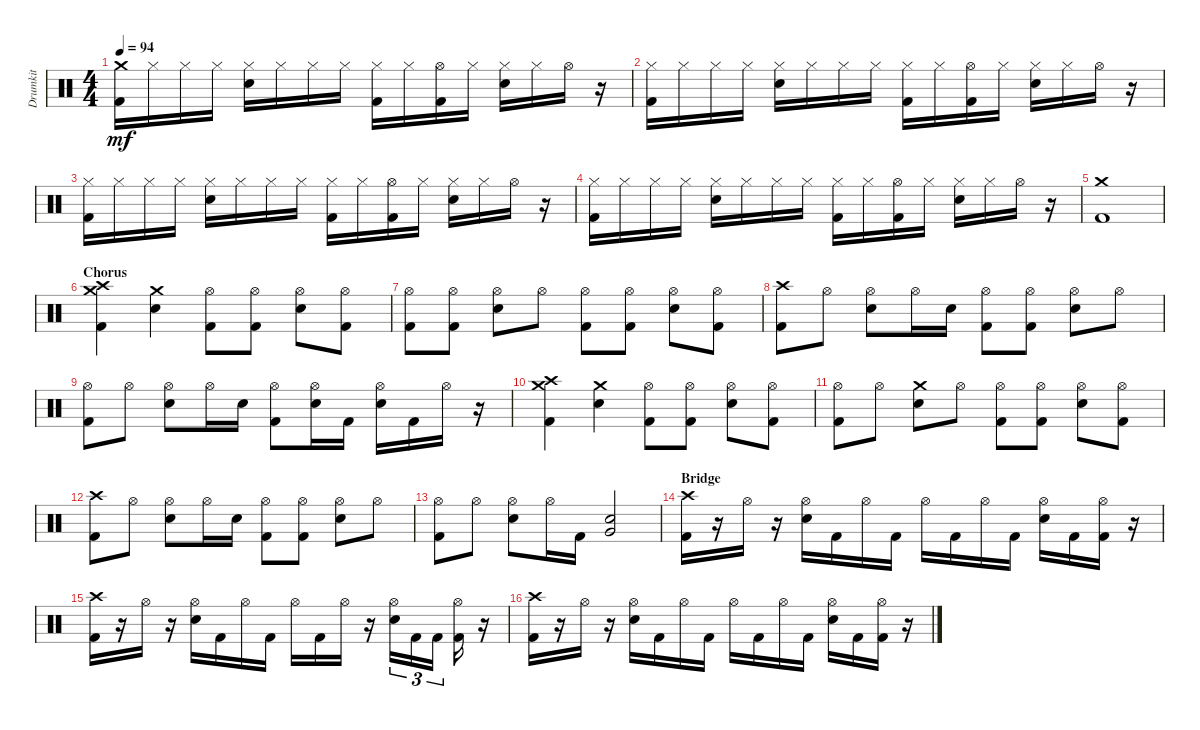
\track ("Drumkit" "Drumkit") {instrument percussion}
\staff {score}
\articulation defaults
\ts (4 4)
\tempo 94
\clef neutral
\ks c
("Crash medium (hit)" "Kick (hit) 2").16{dy mf} "Hi-Hat (closed)".16 "Hi-Hat (closed)".16 "Hi-Hat (closed)".16 ("Hi-Hat (closed)" "Snare (hit) 2").16 "Hi-Hat (closed)".16 "Hi-Hat (closed)".16 "Hi-Hat (closed)".16 ("Hi-Hat (closed)" "Kick (hit) 2").16 "Hi-Hat (closed)".16 ("Hi-Hat (open)" "Kick (hit) 2").16 "Hi-Hat (closed)".16 ("Hi-Hat (closed)" "Snare (hit) 2").16 "Hi-Hat (closed)".16 "Hi-Hat (open)".16 r.16 |
("Hi-Hat (closed)" "Kick (hit) 2").16 "Hi-Hat (closed)".16 "Hi-Hat (closed)".16 "Hi-Hat (closed)".16 ("Hi-Hat (closed)" "Snare (hit) 2").16 "Hi-Hat (closed)".16 "Hi-Hat (closed)".16 "Hi-Hat (closed)".16 ("Hi-Hat (closed)" "Kick (hit) 2").16 "Hi-Hat (closed)".16 ("Hi-Hat (open)" "Kick (hit) 2").16 "Hi-Hat (closed)".16 ("Hi-Hat (closed)" "Snare (hit) 2").16 "Hi-Hat (closed)".16 "Hi-Hat (open)".16 r.16 |
("Hi-Hat (closed)" "Kick (hit) 2").16 "Hi-Hat (closed)".16 "Hi-Hat (closed)".16 "Hi-Hat (closed)".16 ("Hi-Hat (closed)" "Snare (hit) 2").16 "Hi-Hat (closed)".16 "Hi-Hat (closed)".16 "Hi-Hat (closed)".16 ("Hi-Hat (closed)" "Kick (hit) 2").16 "Hi-Hat (closed)".16 ("Hi-Hat (open)" "Kick (hit) 2").16 "Hi-Hat (closed)".16 ("Hi-Hat (closed)" "Snare (hit) 2").16 "Hi-Hat (closed)".16 "Hi-Hat (open)".16 r.16 |
("Hi-Hat (closed)" "Kick (hit) 2").16 "Hi-Hat (closed)".16 "Hi-Hat (closed)".16 "Hi-Hat (closed)".16 ("Hi-Hat (closed)" "Snare (hit) 2").16 "Hi-Hat (closed)".16 "Hi-Hat (closed)".16 "Hi-Hat (closed)".16 ("Hi-Hat (closed)" "Kick (hit) 2").16 "Hi-Hat (closed)".16 ("Hi-Hat (open)" "Kick (hit) 2").16 "Hi-Hat (closed)".16 ("Hi-Hat (closed)" "Snare (hit) 2").16 "Hi-Hat (closed)".16 "Hi-Hat (open)".16 r.16 |
("Crash medium (hit)" "Kick (hit) 2").1 |
\section ("" "Chorus")
("Crash medium (hit)" "Crash high (hit)" "Kick (hit) 2").4 ("Crash medium (hit)" "Snare (hit) 2").4 ("Hi-Hat (open)" "Kick (hit) 2").8 ("Hi-Hat (open)" "Kick (hit) 2").8 ("Hi-Hat (open)" "Snare (hit) 2").8 ("Hi-Hat (open)" "Kick (hit) 2").8 |
("Hi-Hat (open)" "Kick (hit) 2").8 ("Hi-Hat (open)" "Kick (hit) 2").8 ("Hi-Hat (open)" "Snare (hit) 2").8 "Hi-Hat (open)".8 ("Hi-Hat (open)" "Kick (hit) 2").8 ("Hi-Hat (open)" "Kick (hit) 2").8 ("Hi-Hat (open)" "Snare (hit) 2").8 ("Hi-Hat (open)" "Kick (hit) 2").8 |
("Crash high (hit)" "Kick (hit) 2").8 "Hi-Hat (open)".8 ("Hi-Hat (open)" "Snare (hit) 2").8 "Hi-Hat (open)".16 "Snare (hit) 2".16 ("Hi-Hat (open)" "Kick (hit) 2").8 ("Hi-Hat (open)" "Kick (hit) 2").8 ("Hi-Hat (open)" "Snare (hit) 2").8 "Hi-Hat (open)".8 |
("Hi-Hat (open)" "Kick (hit) 2").8 "Hi-Hat (open)".8 ("Hi-Hat (open)" "Snare (hit) 2").8 "Hi-Hat (open)".16 "Snare (hit) 2".16 ("Hi-Hat (open)" "Kick (hit) 2").8 ("Hi-Hat (open)" "Snare (hit) 2").16 "Kick (hit) 2".16 ("Hi-Hat (open)" "Snare (hit) 2").16 "Kick (hit) 2".16 "Hi-Hat (open)".16 r.16 |
("Crash medium (hit)" "Crash high (hit)" "Kick (hit) 2").4 ("Crash medium (hit)" "Snare (hit) 2").4 ("Hi-Hat (open)" "Kick (hit) 2").8 ("Hi-Hat (open)" "Kick (hit) 2").8 ("Hi-Hat (open)" "Snare (hit) 2").8 ("Hi-Hat (open)" "Kick (hit) 2").8 |
("Hi-Hat (open)" "Kick (hit) 2").8 "Hi-Hat (open)".8 ("Crash medium (hit)" "Snare (hit) 2").8 "Hi-Hat (open)".8 ("Hi-Hat (open)" "Kick (hit) 2").8 ("Hi-Hat (open)" "Kick (hit) 2").8 ("Hi-Hat (open)" "Snare (hit) 2").8 ("Hi-Hat (open)" "Kick (hit) 2").8 |
("Crash high (hit)" "Kick (hit) 2").8 "Hi-Hat (open)".8 ("Hi-Hat (open)" "Snare (hit) 2").8 "Hi-Hat (open)".16 "Snare (hit) 2".16 ("Hi-Hat (open)" "Kick (hit) 2").8 ("Hi-Hat (open)" "Kick (hit) 2").8 ("Hi-Hat (open)" "Snare (hit) 2").8 "Hi-Hat (open)".8 |
("Hi-Hat (open)" "Kick (hit) 2").8 "Hi-Hat (open)".8 ("Hi-Hat (open)" "Snare (hit) 2").8 "Hi-Hat (open)".16 "Kick (hit) 2".16 ("Very Low Tom (hit)" "Snare (hit) 2").2 |
\section ("" "Bridge")
("Crash high (hit)" "Kick (hit) 2").16 r.16 "Hi-Hat (open)".16 r.16 ("Hi-Hat (open)" "Snare (hit) 2").16 "Kick (hit) 2".16 "Hi-Hat (open)".16 "Kick (hit) 2".16 "Hi-Hat (open)".16 "Kick (hit) 2".16 "Hi-Hat (open)".16 "Kick (hit) 2".16 ("Hi-Hat (open)" "Snare (hit) 2").16 "Kick (hit) 2".16 ("Hi-Hat (open)" "Kick (hit) 2").16 r.16 |
("Crash high (hit)" "Kick (hit) 2").16 r.16 "Hi-Hat (open)".16 r.16 ("Hi-Hat (open)" "Snare (hit) 2").16 "Kick (hit) 2".16 "Hi-Hat (open)".16 "Kick (hit) 2".16 "Hi-Hat (open)".16 "Kick (hit) 2".16 "Hi-Hat (open)".16 r.16 ("Hi-Hat (open)" "Snare (hit) 2").16{tu (3 2)} "Kick (hit) 2".16{tu (3 2)} "Kick (hit) 2".16{tu (3 2)} ("Hi-Hat (open)" "Kick (hit) 2").16 r.16 |
("Crash high (hit)" "Kick (hit) 2").16 r.16 "Hi-Hat (open)".16 r.16 ("Hi-Hat (open)" "Snare (hit) 2").16 "Kick (hit) 2".16 "Hi-Hat (open)".16 "Kick (hit) 2".16 "Hi-Hat (open)".16 "Kick (hit) 2".16 "Hi-Hat (open)".16 "Kick (hit) 2".16 ("Hi-Hat (open)" "Snare (hit) 2").16 "Kick (hit) 2".16 ("Hi-Hat (open)" "Kick (hit) 2").16 r.16
